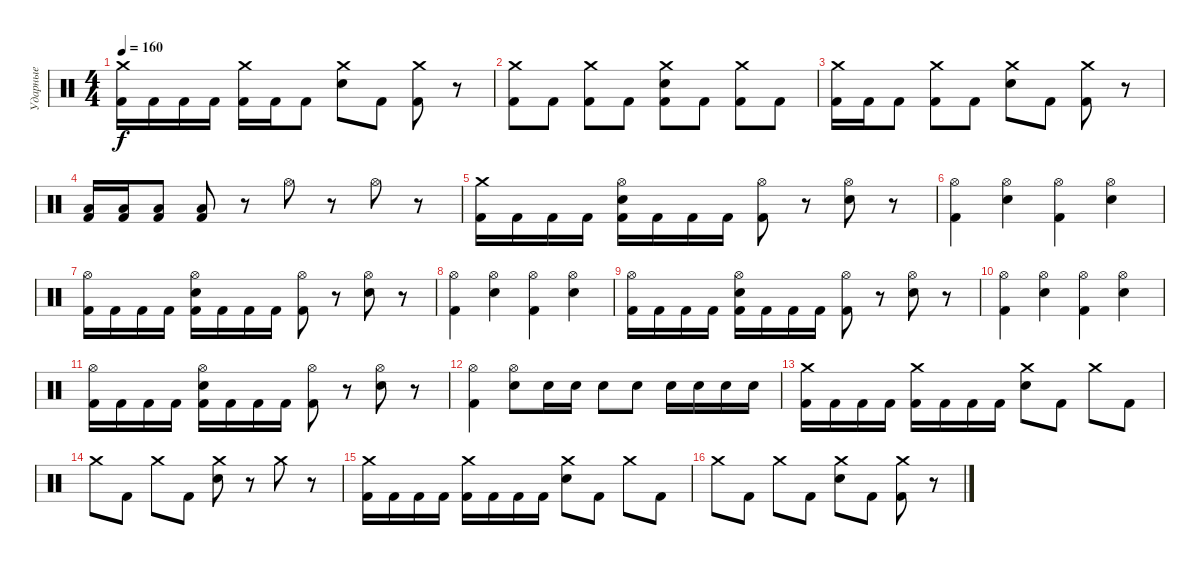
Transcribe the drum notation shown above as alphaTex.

\track ("Ударные" "Ударные") {instrument percussion}
\staff {score}
\articulation defaults
\ts (4 4)
\tempo 160
\clef neutral
\ks c
("Crash medium (hit)" "Kick (hit) 2").16{dy f} "Kick (hit) 2".16 "Kick (hit) 2".16 "Kick (hit) 2".16 ("Crash medium (hit)" "Kick (hit) 2").16 "Kick (hit) 2".16 "Kick (hit) 2".8 ("Crash medium (hit)" "Electric Snare (hit)").8 "Kick (hit) 2".8 ("Crash medium (hit)" "Kick (hit) 2").8 r.8 |
("Crash medium (hit)" "Kick (hit) 2").8 "Kick (hit) 2".8 ("Crash medium (hit)" "Kick (hit) 2").8 "Kick (hit) 2".8 ("Crash medium (hit)" "Electric Snare (hit)" "Kick (hit) 2").8 "Kick (hit) 2".8 ("Crash medium (hit)" "Kick (hit) 2").8 "Kick (hit) 2".8 |
("Crash medium (hit)" "Kick (hit) 2").16 "Kick (hit) 2".16 "Kick (hit) 2".8 ("Crash medium (hit)" "Kick (hit) 2").8 "Kick (hit) 2".8 ("Crash medium (hit)" "Electric Snare (hit)").8 "Kick (hit) 2".8 ("Crash medium (hit)" "Kick (hit) 2").8 r.8 |
("Low Floor Tom (hit)" "Kick (hit) 2").16 ("Low Floor Tom (hit)" "Kick (hit) 2").16 ("Low Floor Tom (hit)" "Kick (hit) 2").8 ("Low Floor Tom (hit)" "Kick (hit) 2").8 r.8 "Hi-Hat (open)".8 r.8 "Hi-Hat (open)".8 r.8 |
("Crash medium (hit)" "Kick (hit) 2").16 "Kick (hit) 2".16 "Kick (hit) 2".16 "Kick (hit) 2".16 ("Hi-Hat (open)" "Electric Snare (hit)" "Kick (hit) 2").16 "Kick (hit) 2".16 "Kick (hit) 2".16 "Kick (hit) 2".16 ("Hi-Hat (open)" "Kick (hit) 2").8 r.8 ("Hi-Hat (open)" "Electric Snare (hit)").8 r.8 |
("Hi-Hat (open)" "Kick (hit) 2").4 ("Hi-Hat (open)" "Electric Snare (hit)").4 ("Hi-Hat (open)" "Kick (hit) 2").4 ("Hi-Hat (open)" "Electric Snare (hit)").4 |
("Hi-Hat (open)" "Kick (hit) 2").16 "Kick (hit) 2".16 "Kick (hit) 2".16 "Kick (hit) 2".16 ("Hi-Hat (open)" "Electric Snare (hit)" "Kick (hit) 2").16 "Kick (hit) 2".16 "Kick (hit) 2".16 "Kick (hit) 2".16 ("Hi-Hat (open)" "Kick (hit) 2").8 r.8 ("Hi-Hat (open)" "Electric Snare (hit)").8 r.8 |
("Hi-Hat (open)" "Kick (hit) 2").4 ("Hi-Hat (open)" "Electric Snare (hit)").4 ("Hi-Hat (open)" "Kick (hit) 2").4 ("Hi-Hat (open)" "Electric Snare (hit)").4 |
("Hi-Hat (open)" "Kick (hit) 2").16 "Kick (hit) 2".16 "Kick (hit) 2".16 "Kick (hit) 2".16 ("Hi-Hat (open)" "Electric Snare (hit)" "Kick (hit) 2").16 "Kick (hit) 2".16 "Kick (hit) 2".16 "Kick (hit) 2".16 ("Hi-Hat (open)" "Kick (hit) 2").8 r.8 ("Hi-Hat (open)" "Electric Snare (hit)").8 r.8 |
("Hi-Hat (open)" "Kick (hit) 2").4 ("Hi-Hat (open)" "Electric Snare (hit)").4 ("Hi-Hat (open)" "Kick (hit) 2").4 ("Hi-Hat (open)" "Electric Snare (hit)").4 |
("Hi-Hat (open)" "Kick (hit) 2").16 "Kick (hit) 2".16 "Kick (hit) 2".16 "Kick (hit) 2".16 ("Hi-Hat (open)" "Electric Snare (hit)" "Kick (hit) 2").16 "Kick (hit) 2".16 "Kick (hit) 2".16 "Kick (hit) 2".16 ("Hi-Hat (open)" "Kick (hit) 2").8 r.8 ("Hi-Hat (open)" "Electric Snare (hit)").8 r.8 |
("Hi-Hat (open)" "Kick (hit) 2").4 ("Hi-Hat (open)" "Electric Snare (hit)").8 "Electric Snare (hit)".16 "Electric Snare (hit)".16 "Electric Snare (hit)".8 "Electric Snare (hit)".8 "Electric Snare (hit)".16 "Electric Snare (hit)".16 "Electric Snare (hit)".16 "Electric Snare (hit)".16 |
("Crash medium (hit)" "Kick (hit) 2").16 "Kick (hit) 2".16 "Kick (hit) 2".16 "Kick (hit) 2".16 ("Crash medium (hit)" "Kick (hit) 2").16 "Kick (hit) 2".16 "Kick (hit) 2".16 "Kick (hit) 2".16 ("Crash medium (hit)" "Electric Snare (hit)").8 "Kick (hit) 2".8 "Crash medium (hit)".8 "Kick (hit) 2".8 |
"Crash medium (hit)".8 "Kick (hit) 2".8 "Crash medium (hit)".8 "Kick (hit) 2".8 ("Crash medium (hit)" "Electric Snare (hit)").8 r.8 "Crash medium (hit)".8 r.8 |
("Crash medium (hit)" "Kick (hit) 2").16 "Kick (hit) 2".16 "Kick (hit) 2".16 "Kick (hit) 2".16 ("Crash medium (hit)" "Kick (hit) 2").16 "Kick (hit) 2".16 "Kick (hit) 2".16 "Kick (hit) 2".16 ("Crash medium (hit)" "Electric Snare (hit)").8 "Kick (hit) 2".8 "Crash medium (hit)".8 "Kick (hit) 2".8 |
"Crash medium (hit)".8 "Kick (hit) 2".8 "Crash medium (hit)".8 "Kick (hit) 2".8 ("Crash medium (hit)" "Electric Snare (hit)").8 "Kick (hit) 2".8 ("Crash medium (hit)" "Kick (hit) 2").8 r.8
